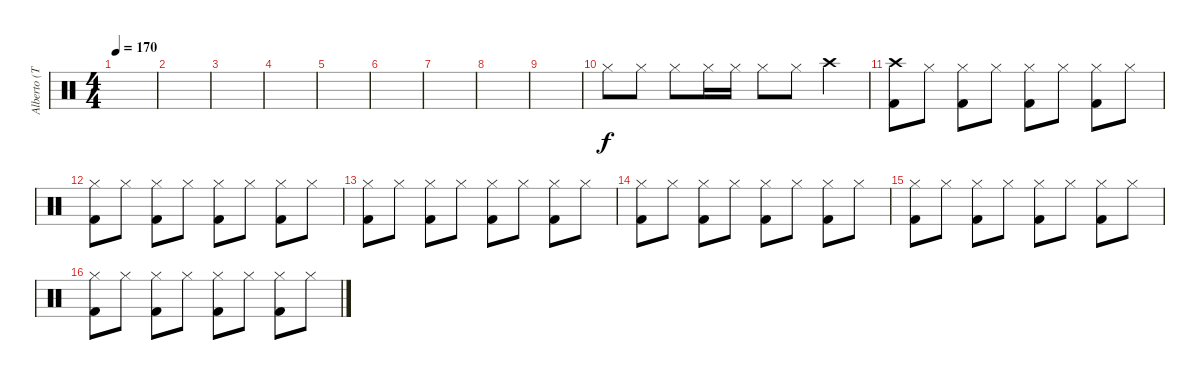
\track ("Alberto (Toshi)" "Alberto (T") {instrument percussion}
\staff {score}
\articulation defaults
\ts (4 4)
\tempo 170
\clef neutral
\ks c
|
|
|
|
|
|
|
|
|
"Hi-Hat (closed)".8 "Hi-Hat (closed)".8 "Hi-Hat (closed)".8 "Hi-Hat (closed)".16 "Hi-Hat (closed)".16 "Hi-Hat (closed)".8 "Hi-Hat (closed)".8 "Crash high (hit)".4 |
("Crash high (hit)" "Kick (hit) 2").8 "Hi-Hat (closed)".8 ("Hi-Hat (closed)" "Kick (hit) 2").8 "Hi-Hat (closed)".8 ("Hi-Hat (closed)" "Kick (hit) 2").8 "Hi-Hat (closed)".8 ("Hi-Hat (closed)" "Kick (hit) 2").8 "Hi-Hat (closed)".8 |
("Hi-Hat (closed)" "Kick (hit) 2").8 "Hi-Hat (closed)".8 ("Hi-Hat (closed)" "Kick (hit) 2").8 "Hi-Hat (closed)".8 ("Hi-Hat (closed)" "Kick (hit) 2").8 "Hi-Hat (closed)".8 ("Hi-Hat (closed)" "Kick (hit) 2").8 "Hi-Hat (closed)".8 |
("Hi-Hat (closed)" "Kick (hit) 2").8 "Hi-Hat (closed)".8 ("Hi-Hat (closed)" "Kick (hit) 2").8 "Hi-Hat (closed)".8 ("Hi-Hat (closed)" "Kick (hit) 2").8 "Hi-Hat (closed)".8 ("Hi-Hat (closed)" "Kick (hit) 2").8 "Hi-Hat (closed)".8 |
("Hi-Hat (closed)" "Kick (hit) 2").8 "Hi-Hat (closed)".8 ("Hi-Hat (closed)" "Kick (hit) 2").8 "Hi-Hat (closed)".8 ("Hi-Hat (closed)" "Kick (hit) 2").8 "Hi-Hat (closed)".8 ("Hi-Hat (closed)" "Kick (hit) 2").8 "Hi-Hat (closed)".8 |
("Hi-Hat (closed)" "Kick (hit) 2").8 "Hi-Hat (closed)".8 ("Hi-Hat (closed)" "Kick (hit) 2").8 "Hi-Hat (closed)".8 ("Hi-Hat (closed)" "Kick (hit) 2").8 "Hi-Hat (closed)".8 ("Hi-Hat (closed)" "Kick (hit) 2").8 "Hi-Hat (closed)".8 |
("Hi-Hat (closed)" "Kick (hit) 2").8 "Hi-Hat (closed)".8 ("Hi-Hat (closed)" "Kick (hit) 2").8 "Hi-Hat (closed)".8 ("Hi-Hat (closed)" "Kick (hit) 2").8 "Hi-Hat (closed)".8 ("Hi-Hat (closed)" "Kick (hit) 2").8 "Hi-Hat (closed)".8
